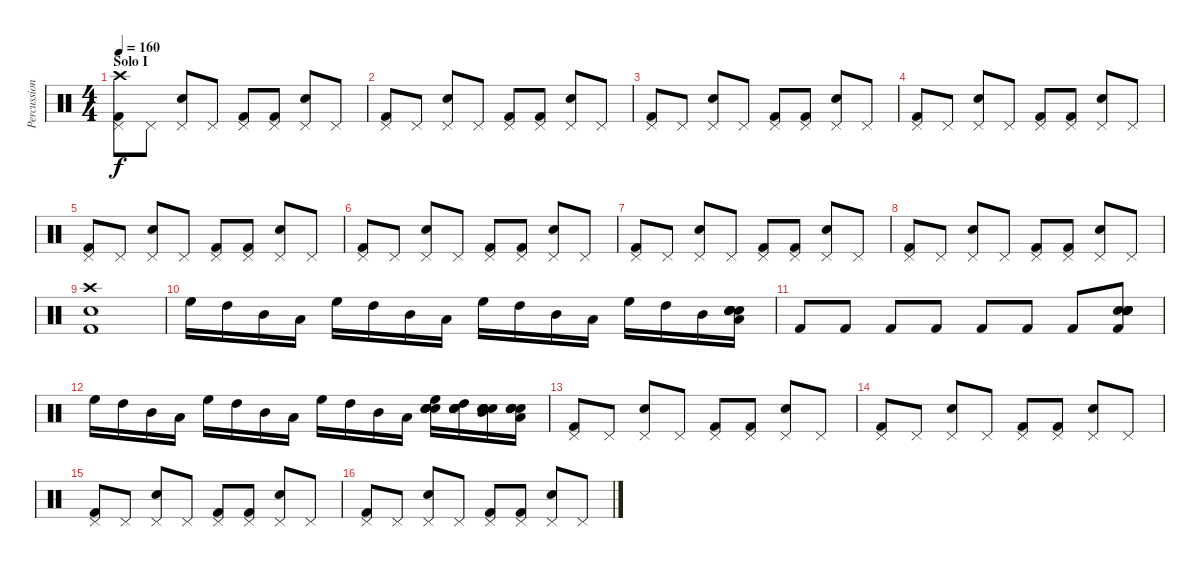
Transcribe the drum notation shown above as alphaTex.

\track ("Percussion" "Percussion") {instrument percussion}
\staff {score}
\articulation defaults
\ts (4 4)
\section ("" "Solo I")
\tempo 160
\clef neutral
\ks c
("Crash high (hit)" "Pedal Hi-Hat (hit)" "Kick (hit) 2").8{dy f} "Pedal Hi-Hat (hit)".8 ("Pedal Hi-Hat (hit)" "Electric Snare (hit)").8 "Pedal Hi-Hat (hit)".8 ("Pedal Hi-Hat (hit)" "Kick (hit) 2").8 ("Pedal Hi-Hat (hit)" "Kick (hit) 2").8 ("Pedal Hi-Hat (hit)" "Electric Snare (hit)").8 "Pedal Hi-Hat (hit)".8 |
("Pedal Hi-Hat (hit)" "Kick (hit) 2").8 "Pedal Hi-Hat (hit)".8 ("Pedal Hi-Hat (hit)" "Electric Snare (hit)").8 "Pedal Hi-Hat (hit)".8 ("Pedal Hi-Hat (hit)" "Kick (hit) 2").8 ("Pedal Hi-Hat (hit)" "Kick (hit) 2").8 ("Pedal Hi-Hat (hit)" "Electric Snare (hit)").8 "Pedal Hi-Hat (hit)".8 |
("Pedal Hi-Hat (hit)" "Kick (hit) 2").8 "Pedal Hi-Hat (hit)".8 ("Pedal Hi-Hat (hit)" "Electric Snare (hit)").8 "Pedal Hi-Hat (hit)".8 ("Pedal Hi-Hat (hit)" "Kick (hit) 2").8 ("Pedal Hi-Hat (hit)" "Kick (hit) 2").8 ("Pedal Hi-Hat (hit)" "Electric Snare (hit)").8 "Pedal Hi-Hat (hit)".8 |
("Pedal Hi-Hat (hit)" "Kick (hit) 2").8 "Pedal Hi-Hat (hit)".8 ("Pedal Hi-Hat (hit)" "Electric Snare (hit)").8 "Pedal Hi-Hat (hit)".8 ("Pedal Hi-Hat (hit)" "Kick (hit) 2").8 ("Pedal Hi-Hat (hit)" "Kick (hit) 2").8 ("Pedal Hi-Hat (hit)" "Electric Snare (hit)").8 "Pedal Hi-Hat (hit)".8 |
("Pedal Hi-Hat (hit)" "Kick (hit) 2").8 "Pedal Hi-Hat (hit)".8 ("Pedal Hi-Hat (hit)" "Electric Snare (hit)").8 "Pedal Hi-Hat (hit)".8 ("Pedal Hi-Hat (hit)" "Kick (hit) 2").8 ("Pedal Hi-Hat (hit)" "Kick (hit) 2").8 ("Pedal Hi-Hat (hit)" "Electric Snare (hit)").8 "Pedal Hi-Hat (hit)".8 |
("Pedal Hi-Hat (hit)" "Kick (hit) 2").8 "Pedal Hi-Hat (hit)".8 ("Pedal Hi-Hat (hit)" "Electric Snare (hit)").8 "Pedal Hi-Hat (hit)".8 ("Pedal Hi-Hat (hit)" "Kick (hit) 2").8 ("Pedal Hi-Hat (hit)" "Kick (hit) 2").8 ("Pedal Hi-Hat (hit)" "Electric Snare (hit)").8 "Pedal Hi-Hat (hit)".8 |
("Pedal Hi-Hat (hit)" "Kick (hit) 2").8 "Pedal Hi-Hat (hit)".8 ("Pedal Hi-Hat (hit)" "Electric Snare (hit)").8 "Pedal Hi-Hat (hit)".8 ("Pedal Hi-Hat (hit)" "Kick (hit) 2").8 ("Pedal Hi-Hat (hit)" "Kick (hit) 2").8 ("Pedal Hi-Hat (hit)" "Electric Snare (hit)").8 "Pedal Hi-Hat (hit)".8 |
("Pedal Hi-Hat (hit)" "Kick (hit) 2").8 "Pedal Hi-Hat (hit)".8 ("Pedal Hi-Hat (hit)" "Electric Snare (hit)").8 "Pedal Hi-Hat (hit)".8 ("Pedal Hi-Hat (hit)" "Kick (hit) 2").8 ("Pedal Hi-Hat (hit)" "Kick (hit) 2").8 ("Pedal Hi-Hat (hit)" "Electric Snare (hit)").8 "Pedal Hi-Hat (hit)".8 |
("Crash high (hit)" "Electric Snare (hit)" "Kick (hit) 2").1 |
"High Floor Tom (hit)".16 "High Tom (hit)".16 "Mid Tom (hit)".16 "Low Tom (hit)".16 "High Floor Tom (hit)".16 "High Tom (hit)".16 "Mid Tom (hit)".16 "Low Tom (hit)".16 "High Floor Tom (hit)".16 "High Tom (hit)".16 "Mid Tom (hit)".16 "Low Tom (hit)".16 "High Floor Tom (hit)".16 "High Tom (hit)".16 "Mid Tom (hit)".16 ("Electric Snare (hit)" "Electric Snare (hit)" "Low Tom (hit)" "Electric Snare (hit)" "Electric Snare (hit)" "Electric Snare (hit)").16 |
"Kick (hit) 2".8 "Kick (hit) 2".8 "Kick (hit) 2".8 "Kick (hit) 2".8 "Kick (hit) 2".8 "Kick (hit) 2".8 "Kick (hit) 2".8 ("Electric Snare (hit)" "Electric Snare (hit)" "Electric Snare (hit)" "Electric Snare (hit)" "Electric Snare (hit)" "Kick (hit) 2").8 |
"High Floor Tom (hit)".16 "High Tom (hit)".16 "Mid Tom (hit)".16 "Low Tom (hit)".16 "High Floor Tom (hit)".16 "High Tom (hit)".16 "Mid Tom (hit)".16 "Low Tom (hit)".16 "High Floor Tom (hit)".16 "High Tom (hit)".16 "Mid Tom (hit)".16 "Low Tom (hit)".16 ("Snare (hit) 2" "High Floor Tom (hit)" "Snare (hit) 2" "Snare (hit) 2" "Snare (hit) 2" "Snare (hit) 2").16 ("Snare (hit) 2" "High Tom (hit)" "Snare (hit) 2" "Snare (hit) 2" "Snare (hit) 2" "Snare (hit) 2").16 ("Snare (hit) 2" "Mid Tom (hit)" "Snare (hit) 2" "Snare (hit) 2" "Snare (hit) 2" "Snare (hit) 2").16 ("Snare (hit) 2" "Low Tom (hit)" "Snare (hit) 2" "Snare (hit) 2" "Snare (hit) 2" "Snare (hit) 2").16 |
("Pedal Hi-Hat (hit)" "Kick (hit) 2").8 "Pedal Hi-Hat (hit)".8 ("Pedal Hi-Hat (hit)" "Electric Snare (hit)").8 "Pedal Hi-Hat (hit)".8 ("Pedal Hi-Hat (hit)" "Kick (hit) 2").8 ("Pedal Hi-Hat (hit)" "Kick (hit) 2").8 ("Pedal Hi-Hat (hit)" "Electric Snare (hit)").8 "Pedal Hi-Hat (hit)".8 |
("Pedal Hi-Hat (hit)" "Kick (hit) 2").8 "Pedal Hi-Hat (hit)".8 ("Pedal Hi-Hat (hit)" "Electric Snare (hit)").8 "Pedal Hi-Hat (hit)".8 ("Pedal Hi-Hat (hit)" "Kick (hit) 2").8 ("Pedal Hi-Hat (hit)" "Kick (hit) 2").8 ("Pedal Hi-Hat (hit)" "Electric Snare (hit)").8 "Pedal Hi-Hat (hit)".8 |
("Pedal Hi-Hat (hit)" "Kick (hit) 2").8 "Pedal Hi-Hat (hit)".8 ("Pedal Hi-Hat (hit)" "Electric Snare (hit)").8 "Pedal Hi-Hat (hit)".8 ("Pedal Hi-Hat (hit)" "Kick (hit) 2").8 ("Pedal Hi-Hat (hit)" "Kick (hit) 2").8 ("Pedal Hi-Hat (hit)" "Electric Snare (hit)").8 "Pedal Hi-Hat (hit)".8 |
("Pedal Hi-Hat (hit)" "Kick (hit) 2").8 "Pedal Hi-Hat (hit)".8 ("Pedal Hi-Hat (hit)" "Electric Snare (hit)").8 "Pedal Hi-Hat (hit)".8 ("Pedal Hi-Hat (hit)" "Kick (hit) 2").8 ("Pedal Hi-Hat (hit)" "Kick (hit) 2").8 ("Pedal Hi-Hat (hit)" "Electric Snare (hit)").8 "Pedal Hi-Hat (hit)".8
